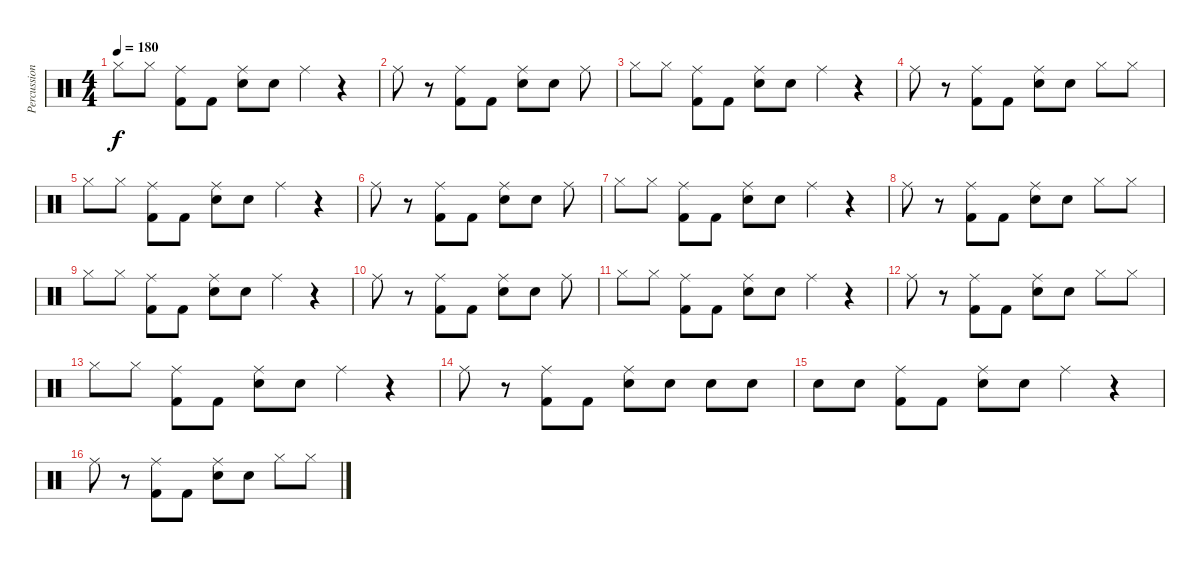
\track ("Percussion" "Percussion") {instrument percussion}
\staff {score}
\articulation defaults
\ts (4 4)
\tempo 180
\clef neutral
\ks c "Hi-Hat (closed)".8{dy f} "Hi-Hat (closed)".8
("Ride (middle)" "Kick (hit) 2").8 "Kick (hit) 2".8 ("Ride (middle)" "Snare (hit) 2").8 "Snare (hit) 2".8 "Ride (middle)".4 r.4 |
"Ride (middle)".8 r.8 ("Ride (middle)" "Kick (hit) 2").8 "Kick (hit) 2".8 ("Ride (middle)" "Snare (hit) 2").8 "Snare (hit) 2".8 "Ride (middle)".8 |
"Hi-Hat (closed)".8 "Hi-Hat (closed)".8 ("Ride (middle)" "Kick (hit) 2").8 "Kick (hit) 2".8 ("Ride (middle)" "Snare (hit) 2").8 "Snare (hit) 2".8 "Ride (middle)".4 r.4 |
"Ride (middle)".8 r.8 ("Ride (middle)" "Kick (hit) 2").8 "Kick (hit) 2".8 ("Ride (middle)" "Snare (hit) 2").8 "Snare (hit) 2".8 "Hi-Hat (closed)".8 "Hi-Hat (closed)".8 |
"Hi-Hat (closed)".8 "Hi-Hat (closed)".8 ("Ride (middle)" "Kick (hit) 2").8 "Kick (hit) 2".8 ("Ride (middle)" "Snare (hit) 2").8 "Snare (hit) 2".8 "Ride (middle)".4 r.4 |
"Ride (middle)".8 r.8 ("Ride (middle)" "Kick (hit) 2").8 "Kick (hit) 2".8 ("Ride (middle)" "Snare (hit) 2").8 "Snare (hit) 2".8 "Ride (middle)".8 |
"Hi-Hat (closed)".8 "Hi-Hat (closed)".8 ("Ride (middle)" "Kick (hit) 2").8 "Kick (hit) 2".8 ("Ride (middle)" "Snare (hit) 2").8 "Snare (hit) 2".8 "Ride (middle)".4 r.4 |
"Ride (middle)".8 r.8 ("Ride (middle)" "Kick (hit) 2").8 "Kick (hit) 2".8 ("Ride (middle)" "Snare (hit) 2").8 "Snare (hit) 2".8 "Hi-Hat (closed)".8 "Hi-Hat (closed)".8 |
"Hi-Hat (closed)".8 "Hi-Hat (closed)".8 ("Ride (middle)" "Kick (hit) 2").8 "Kick (hit) 2".8 ("Ride (middle)" "Snare (hit) 2").8 "Snare (hit) 2".8 "Ride (middle)".4 r.4 |
"Ride (middle)".8 r.8 ("Ride (middle)" "Kick (hit) 2").8 "Kick (hit) 2".8 ("Ride (middle)" "Snare (hit) 2").8 "Snare (hit) 2".8 "Ride (middle)".8 |
"Hi-Hat (closed)".8 "Hi-Hat (closed)".8 ("Ride (middle)" "Kick (hit) 2").8 "Kick (hit) 2".8 ("Ride (middle)" "Snare (hit) 2").8 "Snare (hit) 2".8 "Ride (middle)".4 r.4 |
"Ride (middle)".8 r.8 ("Ride (middle)" "Kick (hit) 2").8 "Kick (hit) 2".8 ("Ride (middle)" "Snare (hit) 2").8 "Snare (hit) 2".8 "Hi-Hat (closed)".8 "Hi-Hat (closed)".8 |
"Hi-Hat (closed)".8 "Hi-Hat (closed)".8 ("Ride (middle)" "Kick (hit) 2").8 "Kick (hit) 2".8 ("Ride (middle)" "Snare (hit) 2").8 "Snare (hit) 2".8 "Ride (middle)".4 r.4 |
"Ride (middle)".8 r.8 ("Ride (middle)" "Kick (hit) 2").8 "Kick (hit) 2".8 ("Ride (middle)" "Snare (hit) 2").8 "Snare (hit) 2".8 "Snare (hit) 2".8 "Snare (hit) 2".8 |
"Snare (hit) 2".8 "Snare (hit) 2".8 ("Ride (middle)" "Kick (hit) 2").8 "Kick (hit) 2".8 ("Ride (middle)" "Snare (hit) 2").8 "Snare (hit) 2".8 "Ride (middle)".4 r.4 |
"Ride (middle)".8 r.8 ("Ride (middle)" "Kick (hit) 2").8 "Kick (hit) 2".8 ("Ride (middle)" "Snare (hit) 2").8 "Snare (hit) 2".8 "Hi-Hat (closed)".8 "Hi-Hat (closed)".8
